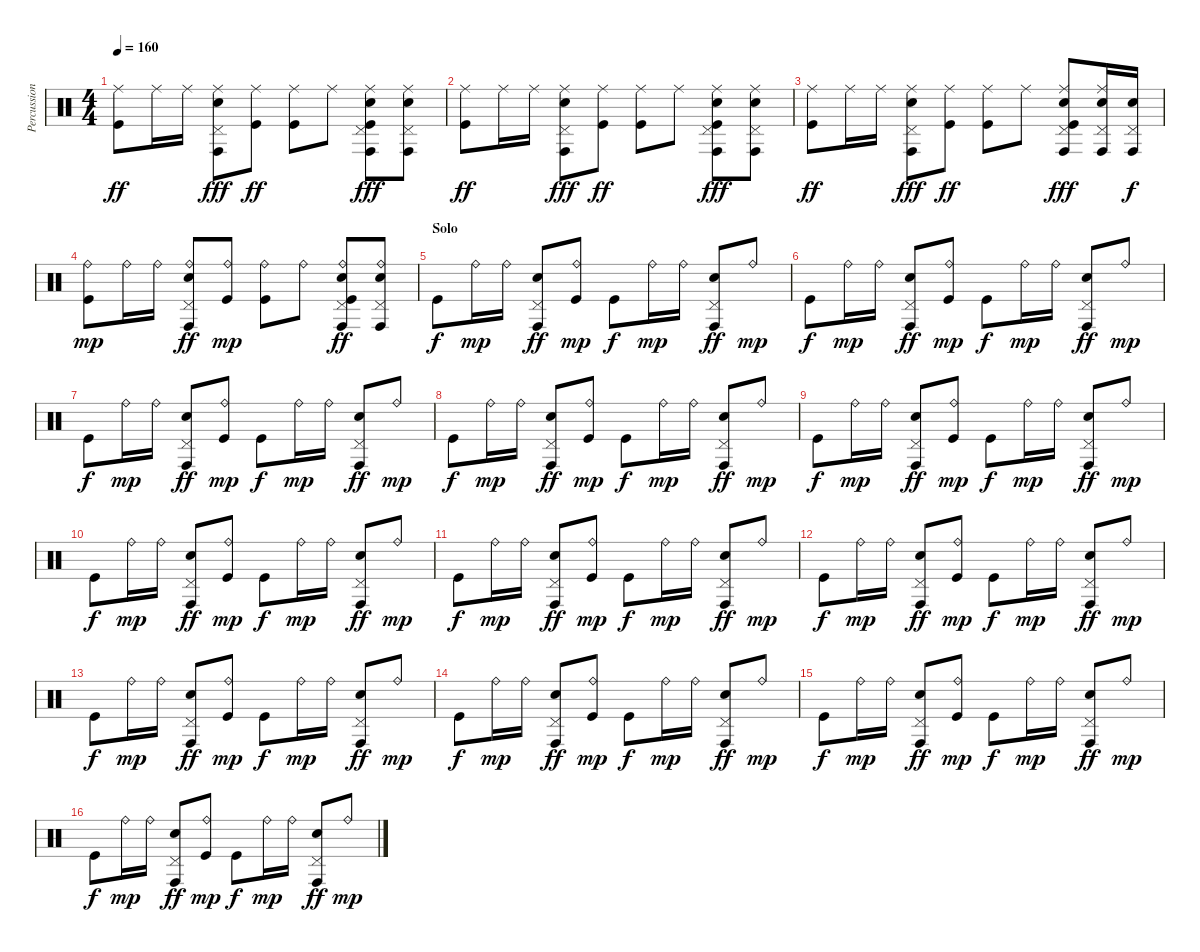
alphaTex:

\track ("Percussion" "Percussion") {instrument percussion}
\staff {score}
\articulation defaults
\ts (4 4)
\tempo 160
\clef neutral
\ks c
("Ride (middle)" "Kick (hit)").8{dy ff} "Ride (middle)".16 "Ride (middle)".16 ("Ride (middle)" "Pedal Hi-Hat (hit)" "Conga high (hit)" "Electric Snare (hit)").8{dy fff} ("Ride (middle)" "Kick (hit)").8{dy ff} ("Ride (middle)" "Kick (hit)").8 "Ride (middle)".8 ("Ride (middle)" "Pedal Hi-Hat (hit)" "Conga high (hit)" "Electric Snare (hit)" "Kick (hit)").8{dy fff} ("Ride (middle)" "Pedal Hi-Hat (hit)" "Conga high (hit)" "Electric Snare (hit)").8 |
("Ride (middle)" "Kick (hit)").8{dy ff} "Ride (middle)".16 "Ride (middle)".16 ("Ride (middle)" "Pedal Hi-Hat (hit)" "Conga high (hit)" "Electric Snare (hit)").8{dy fff} ("Ride (middle)" "Kick (hit)").8{dy ff} ("Ride (middle)" "Kick (hit)").8 "Ride (middle)".8 ("Ride (middle)" "Pedal Hi-Hat (hit)" "Conga high (hit)" "Electric Snare (hit)" "Kick (hit)").8{dy fff} ("Ride (middle)" "Pedal Hi-Hat (hit)" "Conga high (hit)" "Electric Snare (hit)").8 |
("Ride (middle)" "Kick (hit)").8{dy ff} "Ride (middle)".16 "Ride (middle)".16 ("Ride (middle)" "Pedal Hi-Hat (hit)" "Conga high (hit)" "Electric Snare (hit)").8{dy fff} ("Ride (middle)" "Kick (hit)").8{dy ff} ("Ride (middle)" "Kick (hit)").8 "Ride (middle)".8 ("Ride (middle)" "Pedal Hi-Hat (hit)" "Conga high (hit)" "Electric Snare (hit)" "Kick (hit)").8{dy fff} ("Ride (middle)" "Pedal Hi-Hat (hit)" "Conga high (hit)" "Electric Snare (hit)").16 ("Pedal Hi-Hat (hit)" "Conga high (hit)" "Electric Snare (hit)").16{dy f} |
("Ride (bell)" "Kick (hit)").8{dy mp} "Ride (bell)".16 "Ride (bell)".16 ("Ride (bell)" "Pedal Hi-Hat (hit)" "Conga high (hit)" "Electric Snare (hit)").8{dy ff} ("Ride (bell)" "Kick (hit)").8{dy mp} ("Ride (bell)" "Kick (hit)").8 "Ride (bell)".8 ("Ride (bell)" "Pedal Hi-Hat (hit)" "Conga high (hit)" "Electric Snare (hit)" "Kick (hit)").8{dy ff} ("Ride (bell)" "Pedal Hi-Hat (hit)" "Conga high (hit)" "Electric Snare (hit)").8 |
\section ("" "Solo")
"Kick (hit)".8{dy f} "Ride (bell)".16{dy mp} "Ride (bell)".16 ("Pedal Hi-Hat (hit)" "Conga high (hit)" "Electric Snare (hit)").8{dy ff} ("Ride (bell)" "Kick (hit)").8{dy mp} "Kick (hit)".8{dy f} "Ride (bell)".16{dy mp} "Ride (bell)".16 ("Pedal Hi-Hat (hit)" "Conga high (hit)" "Electric Snare (hit)").8{dy ff} "Ride (bell)".8{dy mp} |
"Kick (hit)".8{dy f} "Ride (bell)".16{dy mp} "Ride (bell)".16 ("Pedal Hi-Hat (hit)" "Conga high (hit)" "Electric Snare (hit)").8{dy ff} ("Ride (bell)" "Kick (hit)").8{dy mp} "Kick (hit)".8{dy f} "Ride (bell)".16{dy mp} "Ride (bell)".16 ("Pedal Hi-Hat (hit)" "Conga high (hit)" "Electric Snare (hit)").8{dy ff} "Ride (bell)".8{dy mp} |
"Kick (hit)".8{dy f} "Ride (bell)".16{dy mp} "Ride (bell)".16 ("Pedal Hi-Hat (hit)" "Conga high (hit)" "Electric Snare (hit)").8{dy ff} ("Ride (bell)" "Kick (hit)").8{dy mp} "Kick (hit)".8{dy f} "Ride (bell)".16{dy mp} "Ride (bell)".16 ("Pedal Hi-Hat (hit)" "Conga high (hit)" "Electric Snare (hit)").8{dy ff} "Ride (bell)".8{dy mp} |
"Kick (hit)".8{dy f} "Ride (bell)".16{dy mp} "Ride (bell)".16 ("Pedal Hi-Hat (hit)" "Conga high (hit)" "Electric Snare (hit)").8{dy ff} ("Ride (bell)" "Kick (hit)").8{dy mp} "Kick (hit)".8{dy f} "Ride (bell)".16{dy mp} "Ride (bell)".16 ("Pedal Hi-Hat (hit)" "Conga high (hit)" "Electric Snare (hit)").8{dy ff} "Ride (bell)".8{dy mp} |
"Kick (hit)".8{dy f} "Ride (bell)".16{dy mp} "Ride (bell)".16 ("Pedal Hi-Hat (hit)" "Conga high (hit)" "Electric Snare (hit)").8{dy ff} ("Ride (bell)" "Kick (hit)").8{dy mp} "Kick (hit)".8{dy f} "Ride (bell)".16{dy mp} "Ride (bell)".16 ("Pedal Hi-Hat (hit)" "Conga high (hit)" "Electric Snare (hit)").8{dy ff} "Ride (bell)".8{dy mp} |
"Kick (hit)".8{dy f} "Ride (bell)".16{dy mp} "Ride (bell)".16 ("Pedal Hi-Hat (hit)" "Conga high (hit)" "Electric Snare (hit)").8{dy ff} ("Ride (bell)" "Kick (hit)").8{dy mp} "Kick (hit)".8{dy f} "Ride (bell)".16{dy mp} "Ride (bell)".16 ("Pedal Hi-Hat (hit)" "Conga high (hit)" "Electric Snare (hit)").8{dy ff} "Ride (bell)".8{dy mp} |
"Kick (hit)".8{dy f} "Ride (bell)".16{dy mp} "Ride (bell)".16 ("Pedal Hi-Hat (hit)" "Conga high (hit)" "Electric Snare (hit)").8{dy ff} ("Ride (bell)" "Kick (hit)").8{dy mp} "Kick (hit)".8{dy f} "Ride (bell)".16{dy mp} "Ride (bell)".16 ("Pedal Hi-Hat (hit)" "Conga high (hit)" "Electric Snare (hit)").8{dy ff} "Ride (bell)".8{dy mp} |
"Kick (hit)".8{dy f} "Ride (bell)".16{dy mp} "Ride (bell)".16 ("Pedal Hi-Hat (hit)" "Conga high (hit)" "Electric Snare (hit)").8{dy ff} ("Ride (bell)" "Kick (hit)").8{dy mp} "Kick (hit)".8{dy f} "Ride (bell)".16{dy mp} "Ride (bell)".16 ("Pedal Hi-Hat (hit)" "Conga high (hit)" "Electric Snare (hit)").8{dy ff} "Ride (bell)".8{dy mp} |
"Kick (hit)".8{dy f} "Ride (bell)".16{dy mp} "Ride (bell)".16 ("Pedal Hi-Hat (hit)" "Conga high (hit)" "Electric Snare (hit)").8{dy ff} ("Ride (bell)" "Kick (hit)").8{dy mp} "Kick (hit)".8{dy f} "Ride (bell)".16{dy mp} "Ride (bell)".16 ("Pedal Hi-Hat (hit)" "Conga high (hit)" "Electric Snare (hit)").8{dy ff} "Ride (bell)".8{dy mp} |
"Kick (hit)".8{dy f} "Ride (bell)".16{dy mp} "Ride (bell)".16 ("Pedal Hi-Hat (hit)" "Conga high (hit)" "Electric Snare (hit)").8{dy ff} ("Ride (bell)" "Kick (hit)").8{dy mp} "Kick (hit)".8{dy f} "Ride (bell)".16{dy mp} "Ride (bell)".16 ("Pedal Hi-Hat (hit)" "Conga high (hit)" "Electric Snare (hit)").8{dy ff} "Ride (bell)".8{dy mp} |
"Kick (hit)".8{dy f} "Ride (bell)".16{dy mp} "Ride (bell)".16 ("Pedal Hi-Hat (hit)" "Conga high (hit)" "Electric Snare (hit)").8{dy ff} ("Ride (bell)" "Kick (hit)").8{dy mp} "Kick (hit)".8{dy f} "Ride (bell)".16{dy mp} "Ride (bell)".16 ("Pedal Hi-Hat (hit)" "Conga high (hit)" "Electric Snare (hit)").8{dy ff} "Ride (bell)".8{dy mp} |
"Kick (hit)".8{dy f} "Ride (bell)".16{dy mp} "Ride (bell)".16 ("Pedal Hi-Hat (hit)" "Conga high (hit)" "Electric Snare (hit)").8{dy ff} ("Ride (bell)" "Kick (hit)").8{dy mp} "Kick (hit)".8{dy f} "Ride (bell)".16{dy mp} "Ride (bell)".16 ("Pedal Hi-Hat (hit)" "Conga high (hit)" "Electric Snare (hit)").8{dy ff} "Ride (bell)".8{dy mp}
